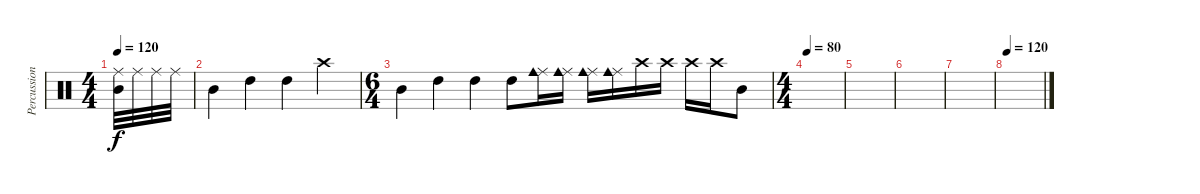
\track ("Percussions" "Percussion") {instrument percussion}
\staff {score}
\articulation defaults
\ts (4 4)
\tempo 120
\clef neutral
\ks c
("Ride (middle)" "Mid Tom (hit)").32{dy f} "Ride (middle)".32 "Ride (middle)".32 "Ride (middle)".32 |
"Mid Tom (hit)".4 "High Tom (hit)".4 "High Tom (hit)".4 "Crash high (hit)".4 |
\ts (6 4)
"Mid Tom (hit)".4 "High Tom (hit)".4 "High Tom (hit)".4 "High Tom (hit)".8 ("Ride (middle)" "Cowbell medium (hit)").16 ("Ride (middle)" "Cowbell medium (hit)").16 ("Ride (middle)" "Cowbell medium (hit)").16 ("Ride (middle)" "Cowbell medium (hit)").16 "Crash high (hit)".16 "Crash high (hit)".16 "Crash high (hit)".16 "Crash high (hit)".16 "Mid Tom (hit)".8 |
\ts (4 4)
\tempo 80
|
|
|
|
\tempo 120
